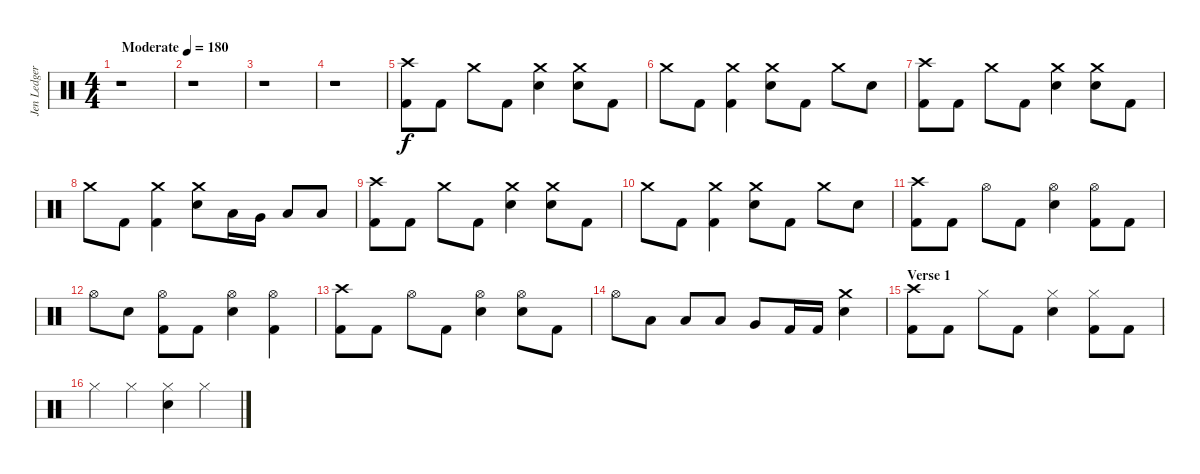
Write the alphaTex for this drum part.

\track ("Jen Ledger" "Jen Ledger") {instrument percussion}
\staff {score}
\articulation defaults
\ts (4 4)
\tempo (180 "Moderate")
\clef neutral
\ks c
r.1{dy f} |
r.1 |
r.1 |
r.1 |
("Crash high (hit)" "Kick (hit) 2").8 "Kick (hit) 2".8 "Crash medium (hit)".8 "Kick (hit) 2".8 ("Crash medium (hit)" "Electric Snare (hit)").4 ("Crash medium (hit)" "Electric Snare (hit)").8 "Kick (hit) 2".8 |
"Crash medium (hit)".8 "Kick (hit) 2".8 ("Crash medium (hit)" "Kick (hit) 2").4 ("Crash medium (hit)" "Electric Snare (hit)").8 "Kick (hit) 2".8 "Crash medium (hit)".8 "Electric Snare (hit)".8 |
("Crash high (hit)" "Kick (hit) 2").8 "Kick (hit) 2".8 "Crash medium (hit)".8 "Kick (hit) 2".8 ("Crash medium (hit)" "Electric Snare (hit)").4 ("Crash medium (hit)" "Electric Snare (hit)").8 "Kick (hit) 2".8 |
"Crash medium (hit)".8 "Kick (hit) 2".8 ("Crash medium (hit)" "Kick (hit) 2").4 ("Crash medium (hit)" "Electric Snare (hit)").8 "Low Tom (hit)".16 "Very Low Tom (hit)".16 "Low Floor Tom (hit)".8 "Low Floor Tom (hit)".8 |
("Crash high (hit)" "Kick (hit) 2").8 "Kick (hit) 2".8 "Crash medium (hit)".8 "Kick (hit) 2".8 ("Crash medium (hit)" "Electric Snare (hit)").4 ("Crash medium (hit)" "Electric Snare (hit)").8 "Kick (hit) 2".8 |
"Crash medium (hit)".8 "Kick (hit) 2".8 ("Crash medium (hit)" "Kick (hit) 2").4 ("Crash medium (hit)" "Electric Snare (hit)").8 "Kick (hit) 2".8 "Crash medium (hit)".8 "Electric Snare (hit)".8 |
("Crash high (hit)" "Kick (hit) 2").8 "Kick (hit) 2".8 "Hi-Hat (open)".8 "Kick (hit) 2".8 ("Hi-Hat (open)" "Electric Snare (hit)").4 ("Hi-Hat (open)" "Kick (hit) 2").8 "Kick (hit) 2".8 |
"Hi-Hat (open)".8 "Electric Snare (hit)".8 ("Hi-Hat (open)" "Kick (hit) 2").8 "Kick (hit) 2".8 ("Hi-Hat (open)" "Electric Snare (hit)").4 ("Hi-Hat (open)" "Kick (hit) 2").4 |
("Crash high (hit)" "Kick (hit) 2").8 "Kick (hit) 2".8 "Hi-Hat (open)".8 "Kick (hit) 2".8 ("Hi-Hat (open)" "Electric Snare (hit)").4 ("Hi-Hat (open)" "Electric Snare (hit)").8 "Kick (hit) 2".8 |
"Hi-Hat (open)".8 "Low Tom (hit)".8 "Low Tom (hit)".8 "Low Tom (hit)".8 "Very Low Tom (hit)".8 "Kick (hit) 2".16 "Kick (hit) 2".16 ("Crash medium (hit)" "Electric Snare (hit)").4 |
\section ("" "Verse 1")
("Crash high (hit)" "Kick (hit) 2").8 "Kick (hit) 2".8 "Hi-Hat (closed)".8 "Kick (hit) 2".8 ("Hi-Hat (closed)" "Electric Snare (hit)").4 ("Hi-Hat (closed)" "Kick (hit) 2").8 "Kick (hit) 2".8 |
"Hi-Hat (closed)".4 "Hi-Hat (closed)".4 ("Hi-Hat (closed)" "Electric Snare (hit)").4 "Hi-Hat (closed)".4
